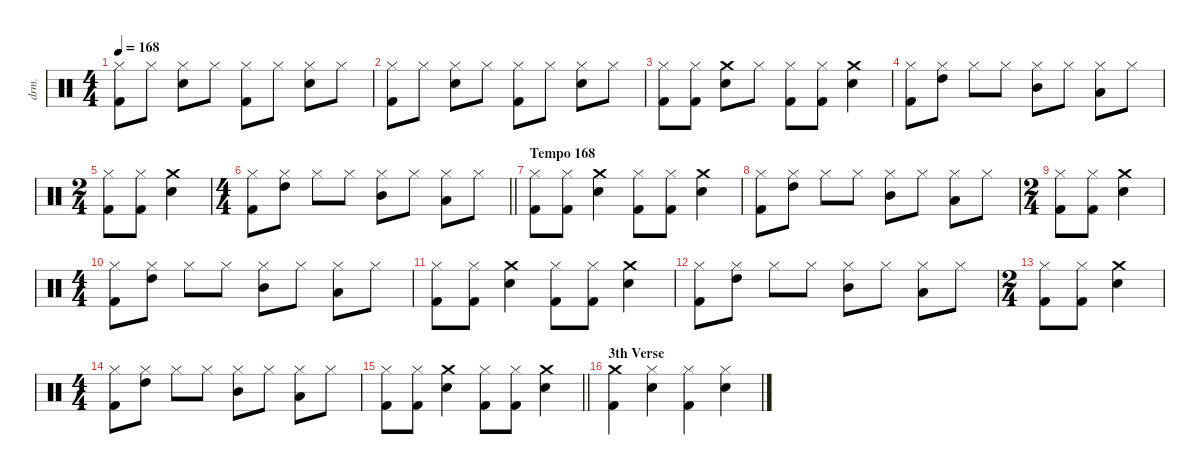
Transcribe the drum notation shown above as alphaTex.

\defaultSystemsLayout 4
\hideDynamics
\bracketExtendMode nobrackets
\otherSystemsTrackNameOrientation horizontal
\track ("Drums" "drm.") {instrument percussion}
\staff {score}
\articulation defaults
\ts (4 4)
\tempo 168
\clef neutral
\ks c
("Kick (hit) 2" "Hi-Hat (closed)").8{dy fff} "Hi-Hat (closed)".8 ("Snare (hit) 2" "Hi-Hat (closed)").8 "Hi-Hat (closed)".8 ("Kick (hit) 2" "Hi-Hat (closed)").8 "Hi-Hat (closed)".8 ("Snare (hit) 2" "Hi-Hat (closed)").8 "Hi-Hat (closed)".8 |
("Kick (hit) 2" "Hi-Hat (closed)").8 "Hi-Hat (closed)".8 ("Snare (hit) 2" "Hi-Hat (closed)").8 "Hi-Hat (closed)".8 ("Kick (hit) 2" "Hi-Hat (closed)").8 "Hi-Hat (closed)".8 ("Snare (hit) 2" "Hi-Hat (closed)").8 "Hi-Hat (closed)".8 |
("Kick (hit) 2" "Hi-Hat (closed)").8 ("Kick (hit) 2" "Hi-Hat (closed)").8 ("Snare (hit) 2" "Crash medium (hit)").8 "Hi-Hat (closed)".8 ("Hi-Hat (closed)" "Kick (hit) 2").8 ("Hi-Hat (closed)" "Kick (hit) 2").8 ("Crash medium (hit)" "Snare (hit) 2").4 |
("Hi-Hat (closed)" "Kick (hit) 2").8 ("High Tom (hit)" "Hi-Hat (closed)").8 "Hi-Hat (closed)".8 "Hi-Hat (closed)".8 ("Mid Tom (hit)" "Hi-Hat (closed)").8 "Hi-Hat (closed)".8 ("Low Tom (hit)" "Hi-Hat (closed)").8 "Hi-Hat (closed)".8 |
\ts (2 4)
\beaming (8 2 2)
("Kick (hit) 2" "Hi-Hat (closed)").8 ("Kick (hit) 2" "Hi-Hat (closed)").8 ("Snare (hit) 2" "Crash medium (hit)").4 |
\ts (4 4)
\beaming (8 2 2 2 2)
\barLineRight lightlight
("Hi-Hat (closed)" "Kick (hit) 2").8 ("High Tom (hit)" "Hi-Hat (closed)").8 "Hi-Hat (closed)".8 "Hi-Hat (closed)".8 ("Mid Tom (hit)" "Hi-Hat (closed)").8 "Hi-Hat (closed)".8 ("Hi-Hat (closed)" "Low Tom (hit)").8 "Hi-Hat (closed)".8 |
\section ("" "Tempo 168")
("Hi-Hat (closed)" "Kick (hit) 2").8 ("Hi-Hat (closed)" "Kick (hit) 2").8 ("Snare (hit) 2" "Crash medium (hit)").4 ("Kick (hit) 2" "Hi-Hat (closed)").8 ("Kick (hit) 2" "Hi-Hat (closed)").8 ("Crash medium (hit)" "Snare (hit) 2").4 |
("Hi-Hat (closed)" "Kick (hit) 2").8 ("High Tom (hit)" "Hi-Hat (closed)").8 "Hi-Hat (closed)".8 "Hi-Hat (closed)".8 ("Mid Tom (hit)" "Hi-Hat (closed)").8 "Hi-Hat (closed)".8 ("Low Tom (hit)" "Hi-Hat (closed)").8 "Hi-Hat (closed)".8 |
\ts (2 4)
\beaming (8 2 2)
("Kick (hit) 2" "Hi-Hat (closed)").8 ("Kick (hit) 2" "Hi-Hat (closed)").8 ("Snare (hit) 2" "Crash medium (hit)").4 |
\ts (4 4)
\beaming (8 2 2 2 2)
("Hi-Hat (closed)" "Kick (hit) 2").8 ("High Tom (hit)" "Hi-Hat (closed)").8 "Hi-Hat (closed)".8 "Hi-Hat (closed)".8 ("Mid Tom (hit)" "Hi-Hat (closed)").8 "Hi-Hat (closed)".8 ("Hi-Hat (closed)" "Low Tom (hit)").8 "Hi-Hat (closed)".8 |
("Hi-Hat (closed)" "Kick (hit) 2").8 ("Hi-Hat (closed)" "Kick (hit) 2").8 ("Snare (hit) 2" "Crash medium (hit)").4 ("Kick (hit) 2" "Hi-Hat (closed)").8 ("Kick (hit) 2" "Hi-Hat (closed)").8 ("Crash medium (hit)" "Snare (hit) 2").4 |
("Hi-Hat (closed)" "Kick (hit) 2").8 ("High Tom (hit)" "Hi-Hat (closed)").8 "Hi-Hat (closed)".8 "Hi-Hat (closed)".8 ("Mid Tom (hit)" "Hi-Hat (closed)").8 "Hi-Hat (closed)".8 ("Low Tom (hit)" "Hi-Hat (closed)").8 "Hi-Hat (closed)".8 |
\ts (2 4)
\beaming (8 2 2)
("Kick (hit) 2" "Hi-Hat (closed)").8 ("Kick (hit) 2" "Hi-Hat (closed)").8 ("Snare (hit) 2" "Crash medium (hit)").4 |
\ts (4 4)
\beaming (8 2 2 2 2)
("Hi-Hat (closed)" "Kick (hit) 2").8 ("High Tom (hit)" "Hi-Hat (closed)").8 "Hi-Hat (closed)".8 "Hi-Hat (closed)".8 ("Mid Tom (hit)" "Hi-Hat (closed)").8 "Hi-Hat (closed)".8 ("Hi-Hat (closed)" "Low Tom (hit)").8 "Hi-Hat (closed)".8 |
\barLineRight lightlight
("Hi-Hat (closed)" "Kick (hit) 2").8 ("Hi-Hat (closed)" "Kick (hit) 2").8 ("Snare (hit) 2" "Crash medium (hit)").4 ("Kick (hit) 2" "Hi-Hat (closed)").8 ("Kick (hit) 2" "Hi-Hat (closed)").8 ("Crash medium (hit)" "Snare (hit) 2").4 |
\section ("" "3th Verse")
("Kick (hit) 2" "Crash medium (hit)").4 ("Hi-Hat (closed)" "Snare (hit) 2").4 ("Hi-Hat (closed)" "Kick (hit) 2").4 ("Snare (hit) 2" "Hi-Hat (closed)").4
